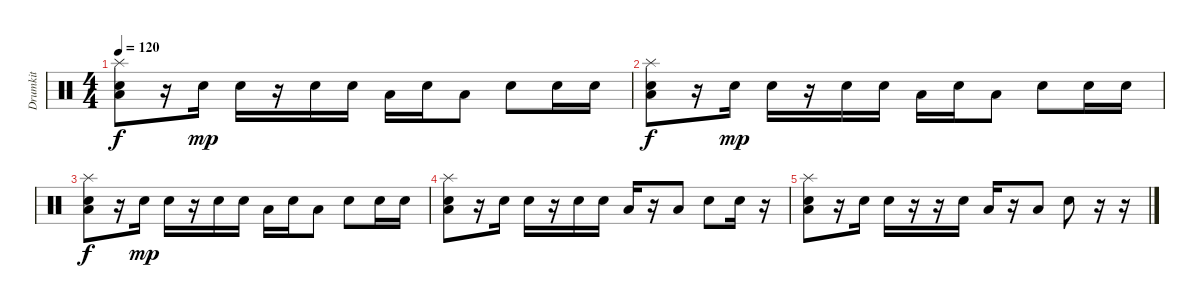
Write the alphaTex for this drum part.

\track ("Drumkit" "Drumkit") {instrument percussion}
\staff {score}
\articulation defaults
\ts (4 4)
\tempo 120
\clef neutral
\ks c
("Low Floor Tom (hit)" "Snare (hit) 2" "Splash (hit)").8{dy f} r.16 "Snare (hit) 2".16{dy mp} "Snare (hit) 2".16 r.16 "Snare (hit) 2".16 "Snare (hit) 2".16 "Low Floor Tom (hit)".16 "Snare (hit) 2".16 "Low Floor Tom (hit)".8 "Snare (hit) 2".8 "Snare (hit) 2".16 "Snare (hit) 2".16 |
("Low Floor Tom (hit)" "Snare (hit) 2" "Splash (hit)").8{dy f} r.16 "Snare (hit) 2".16{dy mp} "Snare (hit) 2".16 r.16 "Snare (hit) 2".16 "Snare (hit) 2".16 "Low Floor Tom (hit)".16 "Snare (hit) 2".16 "Low Floor Tom (hit)".8 "Snare (hit) 2".8 "Snare (hit) 2".16 "Snare (hit) 2".16 |
("Low Floor Tom (hit)" "Snare (hit) 2" "Splash (hit)").8{dy f} r.16 "Snare (hit) 2".16{dy mp} "Snare (hit) 2".16 r.16 "Snare (hit) 2".16 "Snare (hit) 2".16 "Low Floor Tom (hit)".16 "Snare (hit) 2".16 "Low Floor Tom (hit)".8 "Snare (hit) 2".8 "Snare (hit) 2".16 "Snare (hit) 2".16 |
("Low Floor Tom (hit)" "Snare (hit) 2" "Splash (hit)").8 r.16 "Snare (hit) 2".16 "Snare (hit) 2".16 r.16 "Snare (hit) 2".16 "Snare (hit) 2".16 "Low Floor Tom (hit)".16 r.16 "Low Floor Tom (hit)".8 "Snare (hit) 2".8 "Snare (hit) 2".16 r.16 |
("Low Floor Tom (hit)" "Snare (hit) 2" "Splash (hit)").8 r.16 "Snare (hit) 2".16 "Snare (hit) 2".16 r.16 r.16 "Snare (hit) 2".16 "Low Floor Tom (hit)".16 r.16 "Low Floor Tom (hit)".8 "Snare (hit) 2".8 r.16 r.16
